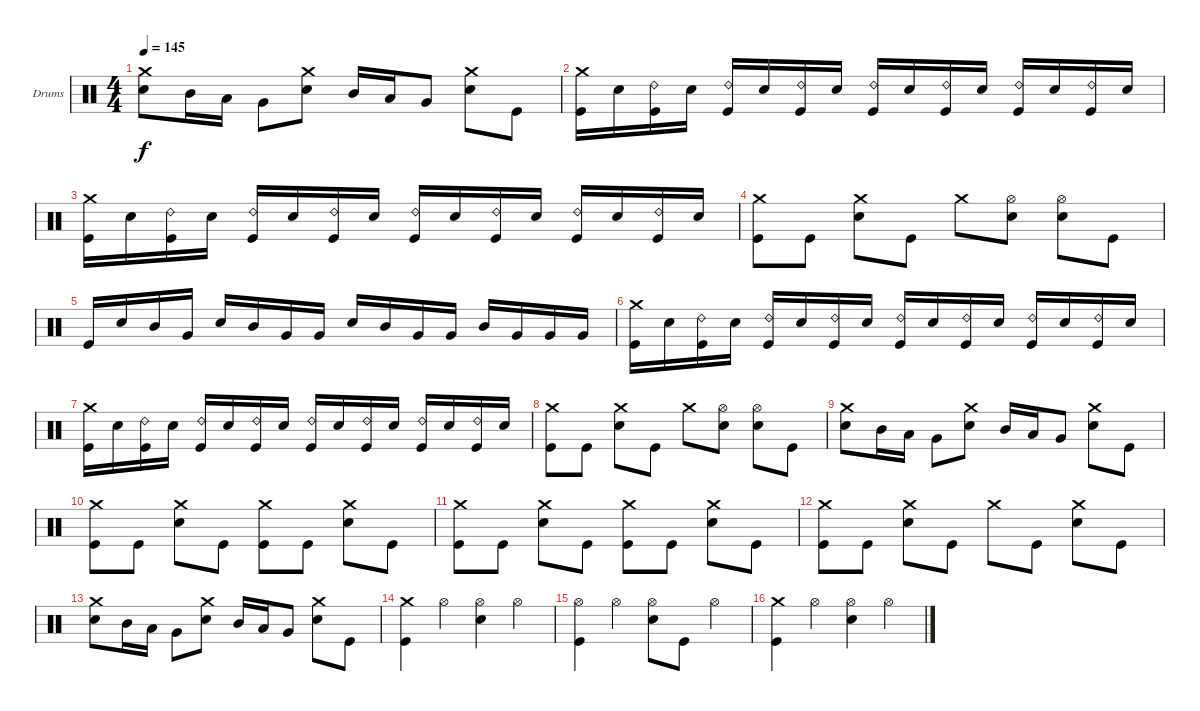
\defaultSystemsLayout 4
\bracketExtendMode groupsimilarinstruments
\firstSystemTrackNameOrientation horizontal
\otherSystemsTrackNameOrientation horizontal
\track ("Drumkit" "Drums") {instrument percussion}
\staff {score}
\articulation defaults
\ts (4 4)
\tempo 145
\clef neutral
\ks c
("Snare (hit) 2" "Crash medium (hit)").8{dy f} "Mid Tom (hit)".16 "Low Tom (hit)".16 "Very Low Tom (hit)".8 ("Snare (hit) 2" "Crash medium (hit)").8 "Mid Tom (hit)".16 "Low Tom (hit)".16 "Very Low Tom (hit)".8 ("Snare (hit) 2" "Crash medium (hit)").8 "Kick (hit)".8 |
("Kick (hit)" "Crash medium (hit)").16 "Snare (hit) 2".16 ("Kick (hit)" "Ride (bell) 2").16 "Snare (hit) 2".16 ("Kick (hit)" "Ride (bell) 2").16 "Snare (hit) 2".16 ("Kick (hit)" "Ride (bell) 2").16 "Snare (hit) 2".16 ("Kick (hit)" "Ride (bell) 2").16 "Snare (hit) 2".16 ("Kick (hit)" "Ride (bell) 2").16 "Snare (hit) 2".16 ("Kick (hit)" "Ride (bell) 2").16 "Snare (hit) 2".16 ("Kick (hit)" "Ride (bell) 2").16 "Snare (hit) 2".16 |
("Kick (hit)" "Crash medium (hit)").16 "Snare (hit) 2".16 ("Kick (hit)" "Ride (bell) 2").16 "Snare (hit) 2".16 ("Kick (hit)" "Ride (bell) 2").16 "Snare (hit) 2".16 ("Kick (hit)" "Ride (bell) 2").16 "Snare (hit) 2".16 ("Kick (hit)" "Ride (bell) 2").16 "Snare (hit) 2".16 ("Kick (hit)" "Ride (bell) 2").16 "Snare (hit) 2".16 ("Kick (hit)" "Ride (bell) 2").16 "Snare (hit) 2".16 ("Kick (hit)" "Ride (bell) 2").16 "Snare (hit) 2".16 |
("Kick (hit)" "Crash medium (hit)").8 "Kick (hit)".8 ("Snare (hit) 2" "Crash medium (hit)").8 "Kick (hit)".8 "Crash medium (hit)".8 ("Snare (hit) 2" "Hi-Hat (open)").8 ("Snare (hit) 2" "Hi-Hat (open)").8 "Kick (hit)".8 |
"Kick (hit)".16 "Snare (hit) 2".16 "Mid Tom (hit)".16 "Very Low Tom (hit)".16 "Snare (hit) 2".16 "Mid Tom (hit)".16 "Very Low Tom (hit)".16 "Very Low Tom (hit)".16 "Snare (hit) 2".16 "Mid Tom (hit)".16 "Very Low Tom (hit)".16 "Very Low Tom (hit)".16 "Mid Tom (hit)".16 "Very Low Tom (hit)".16 "Very Low Tom (hit)".16 "Very Low Tom (hit)".16 |
("Kick (hit)" "Crash medium (hit)").16 "Snare (hit) 2".16 ("Kick (hit)" "Ride (bell) 2").16 "Snare (hit) 2".16 ("Kick (hit)" "Ride (bell) 2").16 "Snare (hit) 2".16 ("Kick (hit)" "Ride (bell) 2").16 "Snare (hit) 2".16 ("Kick (hit)" "Ride (bell) 2").16 "Snare (hit) 2".16 ("Kick (hit)" "Ride (bell) 2").16 "Snare (hit) 2".16 ("Kick (hit)" "Ride (bell) 2").16 "Snare (hit) 2".16 ("Kick (hit)" "Ride (bell) 2").16 "Snare (hit) 2".16 |
("Kick (hit)" "Crash medium (hit)").16 "Snare (hit) 2".16 ("Kick (hit)" "Ride (bell) 2").16 "Snare (hit) 2".16 ("Kick (hit)" "Ride (bell) 2").16 "Snare (hit) 2".16 ("Kick (hit)" "Ride (bell) 2").16 "Snare (hit) 2".16 ("Kick (hit)" "Ride (bell) 2").16 "Snare (hit) 2".16 ("Kick (hit)" "Ride (bell) 2").16 "Snare (hit) 2".16 ("Kick (hit)" "Ride (bell) 2").16 "Snare (hit) 2".16 ("Kick (hit)" "Ride (bell) 2").16 "Snare (hit) 2".16 |
("Kick (hit)" "Crash medium (hit)").8 "Kick (hit)".8 ("Snare (hit) 2" "Crash medium (hit)").8 "Kick (hit)".8 "Crash medium (hit)".8 ("Snare (hit) 2" "Hi-Hat (open)").8 ("Snare (hit) 2" "Hi-Hat (open)").8 "Kick (hit)".8 |
("Snare (hit) 2" "Crash medium (hit)").8 "Mid Tom (hit)".16 "Low Tom (hit)".16 "Very Low Tom (hit)".8 ("Snare (hit) 2" "Crash medium (hit)").8 "Mid Tom (hit)".16 "Low Tom (hit)".16 "Very Low Tom (hit)".8 ("Snare (hit) 2" "Crash medium (hit)").8 "Kick (hit)".8 |
("Kick (hit)" "Crash medium (hit)").8 "Kick (hit)".8 ("Snare (hit) 2" "Crash medium (hit)").8 "Kick (hit)".8 ("Crash medium (hit)" "Kick (hit)").8 "Kick (hit)".8 ("Snare (hit) 2" "Crash medium (hit)").8 "Kick (hit)".8 |
("Kick (hit)" "Crash medium (hit)").8 "Kick (hit)".8 ("Snare (hit) 2" "Crash medium (hit)").8 "Kick (hit)".8 ("Crash medium (hit)" "Kick (hit)").8 "Kick (hit)".8 ("Snare (hit) 2" "Crash medium (hit)").8 "Kick (hit)".8 |
("Kick (hit)" "Crash medium (hit)").8 "Kick (hit)".8 ("Snare (hit) 2" "Crash medium (hit)").8 "Kick (hit)".8 "Crash medium (hit)".8 "Kick (hit)".8 ("Snare (hit) 2" "Crash medium (hit)").8 "Kick (hit)".8 |
("Snare (hit) 2" "Crash medium (hit)").8 "Mid Tom (hit)".16 "Low Tom (hit)".16 "Very Low Tom (hit)".8 ("Snare (hit) 2" "Crash medium (hit)").8 "Mid Tom (hit)".16 "Low Tom (hit)".16 "Very Low Tom (hit)".8 ("Snare (hit) 2" "Crash medium (hit)").8 "Kick (hit)".8 |
("Kick (hit)" "Crash medium (hit)").4 "Hi-Hat (open)".4 ("Snare (hit) 2" "Hi-Hat (open)").4 "Hi-Hat (open)".4 |
("Kick (hit)" "Hi-Hat (open)").4 "Hi-Hat (open)".4 ("Snare (hit) 2" "Hi-Hat (open)").8 "Kick (hit)".8 "Hi-Hat (open)".4 |
("Kick (hit)" "Crash medium (hit)").4 "Hi-Hat (open)".4 ("Snare (hit) 2" "Hi-Hat (open)").4 "Hi-Hat (open)".4
